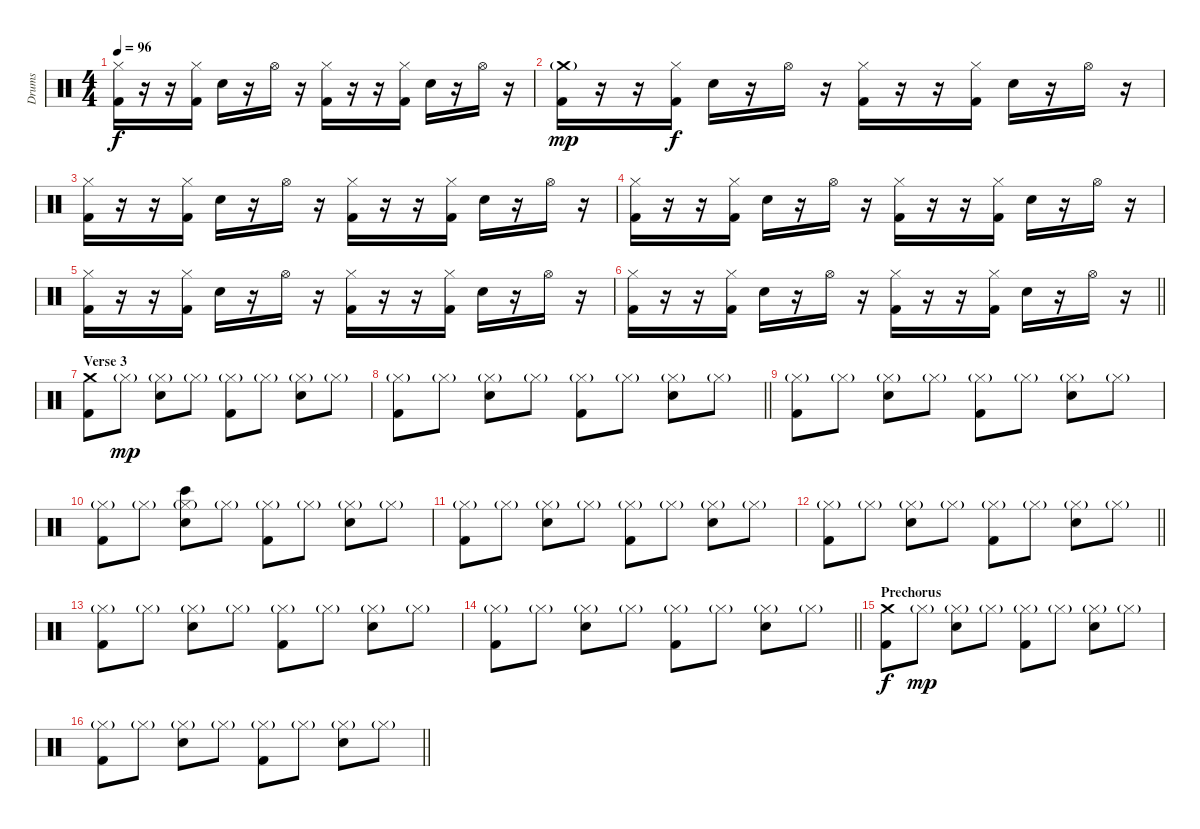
\track ("Drums" "Drums") {instrument percussion}
\staff {score}
\articulation defaults
\ts (4 4)
\tempo 96
\clef neutral
\ks c
("Hi-Hat (closed)" "Kick (hit) 2").16{dy f} r.16 r.16 ("Hi-Hat (closed)" "Kick (hit) 2").16 "Snare (hit) 2".16 r.16 "Hi-Hat (open)".16 r.16 ("Hi-Hat (closed)" "Kick (hit) 2").16 r.16 r.16 ("Hi-Hat (closed)" "Kick (hit) 2").16 "Snare (hit) 2".16 r.16 "Hi-Hat (open)".16 r.16 |
("Crash medium (hit)"{g} "Kick (hit) 2").16{dy mp} r.16 r.16 ("Hi-Hat (closed)" "Kick (hit) 2").16{dy f} "Snare (hit) 2".16 r.16 "Hi-Hat (open)".16 r.16 ("Hi-Hat (closed)" "Kick (hit) 2").16 r.16 r.16 ("Hi-Hat (closed)" "Kick (hit) 2").16 "Snare (hit) 2".16 r.16 "Hi-Hat (open)".16 r.16 |
("Hi-Hat (closed)" "Kick (hit) 2").16 r.16 r.16 ("Hi-Hat (closed)" "Kick (hit) 2").16 "Snare (hit) 2".16 r.16 "Hi-Hat (open)".16 r.16 ("Hi-Hat (closed)" "Kick (hit) 2").16 r.16 r.16 ("Hi-Hat (closed)" "Kick (hit) 2").16 "Snare (hit) 2".16 r.16 "Hi-Hat (open)".16 r.16 |
("Hi-Hat (closed)" "Kick (hit) 2").16 r.16 r.16 ("Hi-Hat (closed)" "Kick (hit) 2").16 "Snare (hit) 2".16 r.16 "Hi-Hat (open)".16 r.16 ("Hi-Hat (closed)" "Kick (hit) 2").16 r.16 r.16 ("Hi-Hat (closed)" "Kick (hit) 2").16 "Snare (hit) 2".16 r.16 "Hi-Hat (open)".16 r.16 |
("Hi-Hat (closed)" "Kick (hit) 2").16 r.16 r.16 ("Hi-Hat (closed)" "Kick (hit) 2").16 "Snare (hit) 2".16 r.16 "Hi-Hat (open)".16 r.16 ("Hi-Hat (closed)" "Kick (hit) 2").16 r.16 r.16 ("Hi-Hat (closed)" "Kick (hit) 2").16 "Snare (hit) 2".16 r.16 "Hi-Hat (open)".16 r.16 |
\barLineRight lightlight
("Hi-Hat (closed)" "Kick (hit) 2").16 r.16 r.16 ("Hi-Hat (closed)" "Kick (hit) 2").16 "Snare (hit) 2".16 r.16 "Hi-Hat (open)".16 r.16 ("Hi-Hat (closed)" "Kick (hit) 2").16 r.16 r.16 ("Hi-Hat (closed)" "Kick (hit) 2").16 "Snare (hit) 2".16 r.16 "Hi-Hat (open)".16 r.16 |
\section ("" "Verse 3")
("Crash medium (hit)" "Kick (hit) 2").8 "Hi-Hat (closed)"{g}.8{dy mp} ("Hi-Hat (closed)"{g} "Snare (hit) 2").8 "Hi-Hat (closed)"{g}.8 ("Hi-Hat (closed)"{g} "Kick (hit) 2").8 "Hi-Hat (closed)"{g}.8 ("Hi-Hat (closed)"{g} "Snare (hit) 2").8 "Hi-Hat (closed)"{g}.8 |
\barLineRight lightlight
("Hi-Hat (closed)"{g} "Kick (hit) 2").8 "Hi-Hat (closed)"{g}.8 ("Hi-Hat (closed)"{g} "Snare (hit) 2").8 "Hi-Hat (closed)"{g}.8 ("Hi-Hat (closed)"{g} "Kick (hit) 2").8 "Hi-Hat (closed)"{g}.8 ("Hi-Hat (closed)"{g} "Snare (hit) 2").8 "Hi-Hat (closed)"{g}.8 |
("Hi-Hat (closed)"{g} "Kick (hit) 2").8 "Hi-Hat (closed)"{g}.8 ("Hi-Hat (closed)"{g} "Snare (hit) 2").8 "Hi-Hat (closed)"{g}.8 ("Hi-Hat (closed)"{g} "Kick (hit) 2").8 "Hi-Hat (closed)"{g}.8 ("Hi-Hat (closed)"{g} "Snare (hit) 2").8 "Hi-Hat (closed)"{g}.8 |
("Hi-Hat (closed)"{g} "Kick (hit) 2").8 "Hi-Hat (closed)"{g}.8 ("Hi-Hat (closed)"{g} "Snare (hit) 2" "Bongo High (hit)").8 "Hi-Hat (closed)"{g}.8 ("Hi-Hat (closed)"{g} "Kick (hit) 2").8 "Hi-Hat (closed)"{g}.8 ("Hi-Hat (closed)"{g} "Snare (hit) 2").8 "Hi-Hat (closed)"{g}.8 |
("Hi-Hat (closed)"{g} "Kick (hit) 2").8 "Hi-Hat (closed)"{g}.8 ("Hi-Hat (closed)"{g} "Snare (hit) 2").8 "Hi-Hat (closed)"{g}.8 ("Hi-Hat (closed)"{g} "Kick (hit) 2").8 "Hi-Hat (closed)"{g}.8 ("Hi-Hat (closed)"{g} "Snare (hit) 2").8 "Hi-Hat (closed)"{g}.8 |
\barLineRight lightlight
("Hi-Hat (closed)"{g} "Kick (hit) 2").8 "Hi-Hat (closed)"{g}.8 ("Hi-Hat (closed)"{g} "Snare (hit) 2").8 "Hi-Hat (closed)"{g}.8 ("Hi-Hat (closed)"{g} "Kick (hit) 2").8 "Hi-Hat (closed)"{g}.8 ("Hi-Hat (closed)"{g} "Snare (hit) 2").8 "Hi-Hat (closed)"{g}.8 |
("Hi-Hat (closed)"{g} "Kick (hit) 2").8 "Hi-Hat (closed)"{g}.8 ("Hi-Hat (closed)"{g} "Snare (hit) 2").8 "Hi-Hat (closed)"{g}.8 ("Hi-Hat (closed)"{g} "Kick (hit) 2").8 "Hi-Hat (closed)"{g}.8 ("Hi-Hat (closed)"{g} "Snare (hit) 2").8 "Hi-Hat (closed)"{g}.8 |
\barLineRight lightlight
("Hi-Hat (closed)"{g} "Kick (hit) 2").8 "Hi-Hat (closed)"{g}.8 ("Hi-Hat (closed)"{g} "Snare (hit) 2").8 "Hi-Hat (closed)"{g}.8 ("Hi-Hat (closed)"{g} "Kick (hit) 2").8 "Hi-Hat (closed)"{g}.8 ("Hi-Hat (closed)"{g} "Snare (hit) 2").8 "Hi-Hat (closed)"{g}.8 |
\section ("" "Prechorus")
("Crash medium (hit)" "Kick (hit) 2").8{dy f} "Hi-Hat (closed)"{g}.8{dy mp} ("Hi-Hat (closed)"{g} "Snare (hit) 2").8 "Hi-Hat (closed)"{g}.8 ("Hi-Hat (closed)"{g} "Kick (hit) 2").8 "Hi-Hat (closed)"{g}.8 ("Hi-Hat (closed)"{g} "Snare (hit) 2").8 "Hi-Hat (closed)"{g}.8 |
\barLineRight lightlight
("Hi-Hat (closed)"{g} "Kick (hit) 2").8 "Hi-Hat (closed)"{g}.8 ("Hi-Hat (closed)"{g} "Snare (hit) 2").8 "Hi-Hat (closed)"{g}.8 ("Hi-Hat (closed)"{g} "Kick (hit) 2").8 "Hi-Hat (closed)"{g}.8 ("Hi-Hat (closed)"{g} "Snare (hit) 2").8 "Hi-Hat (closed)"{g}.8
